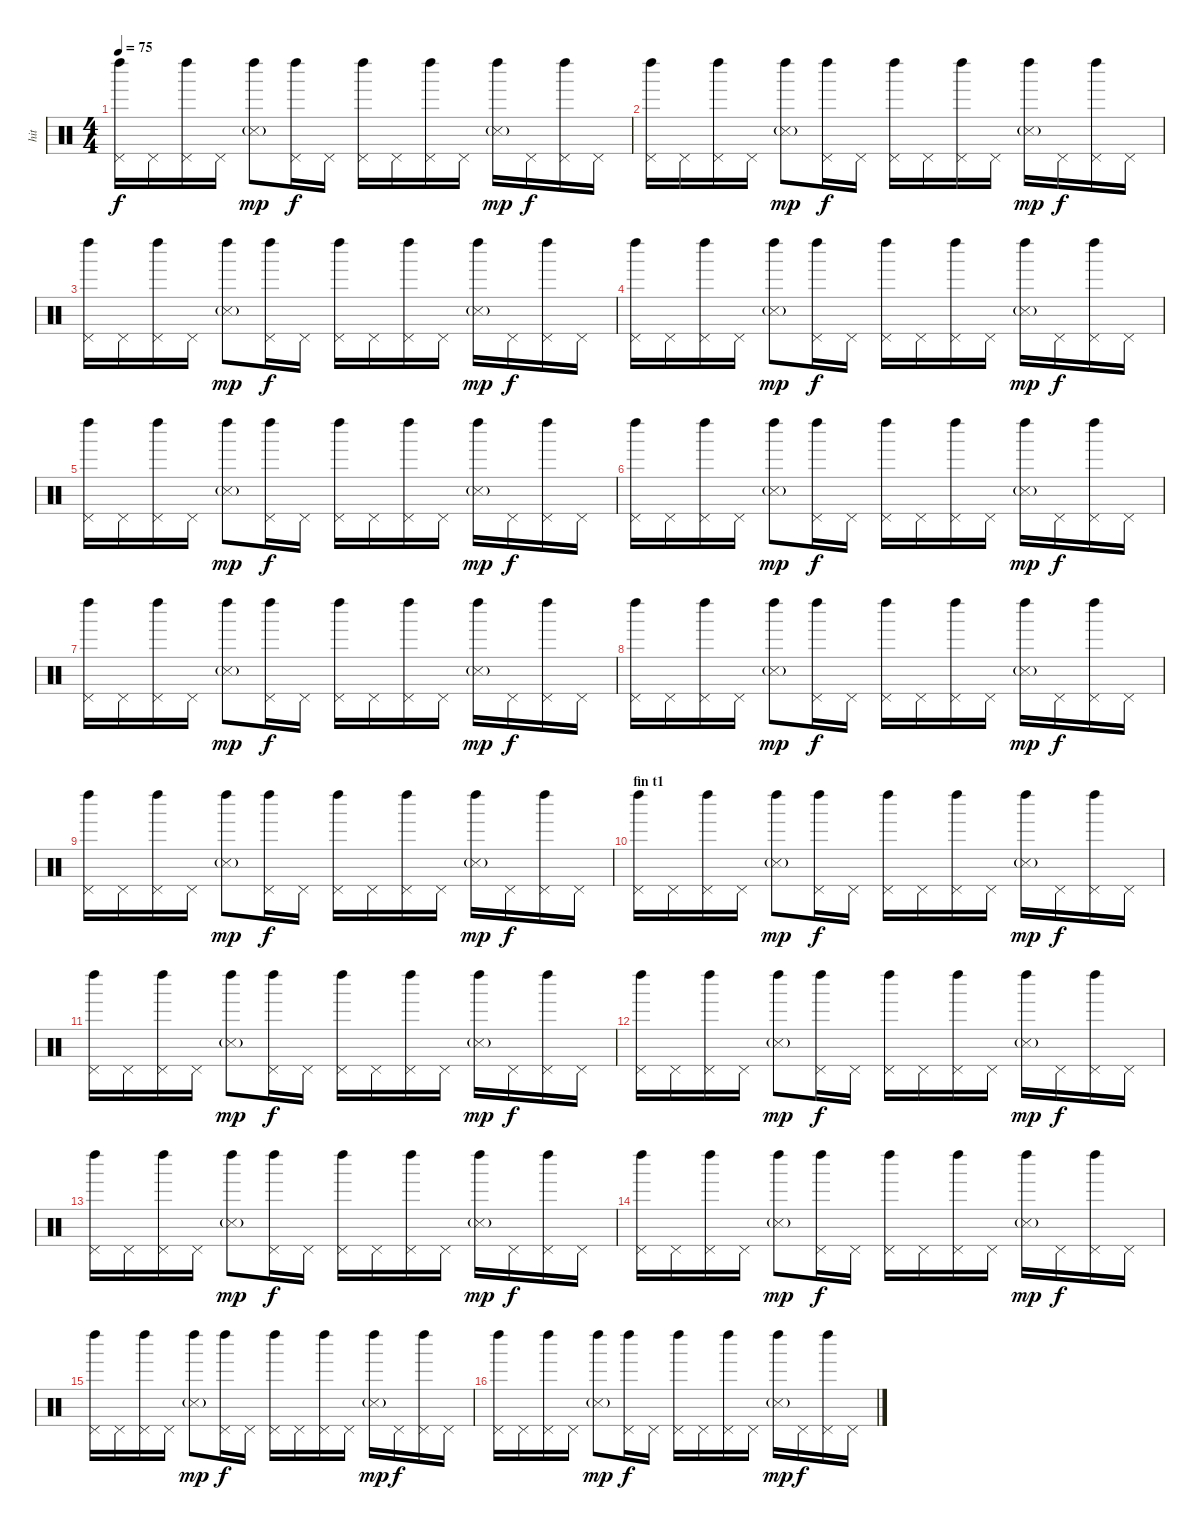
\track ("hit" "hit") {instrument percussion}
\staff {score}
\articulation defaults
\ts (4 4)
\tempo 75
\clef neutral
\ks c
("Pedal Hi-Hat (hit)" "Left Maraca (hit)").16{dy f} "Pedal Hi-Hat (hit)".16 ("Pedal Hi-Hat (hit)" "Left Maraca (hit)").16 "Pedal Hi-Hat (hit)".16 ("Metronome (hit)"{g} "Left Maraca (hit)").8{dy mp} ("Pedal Hi-Hat (hit)" "Left Maraca (hit)").16{dy f} "Pedal Hi-Hat (hit)".16 ("Pedal Hi-Hat (hit)" "Left Maraca (hit)").16 "Pedal Hi-Hat (hit)".16 ("Pedal Hi-Hat (hit)" "Left Maraca (hit)").16 "Pedal Hi-Hat (hit)".16 ("Metronome (hit)"{g} "Left Maraca (hit)").16{dy mp} "Pedal Hi-Hat (hit)".16{dy f} ("Pedal Hi-Hat (hit)" "Left Maraca (hit)").16 "Pedal Hi-Hat (hit)".16 |
("Pedal Hi-Hat (hit)" "Left Maraca (hit)").16 "Pedal Hi-Hat (hit)".16 ("Pedal Hi-Hat (hit)" "Left Maraca (hit)").16 "Pedal Hi-Hat (hit)".16 ("Metronome (hit)"{g} "Left Maraca (hit)").8{dy mp} ("Pedal Hi-Hat (hit)" "Left Maraca (hit)").16{dy f} "Pedal Hi-Hat (hit)".16 ("Pedal Hi-Hat (hit)" "Left Maraca (hit)").16 "Pedal Hi-Hat (hit)".16 ("Pedal Hi-Hat (hit)" "Left Maraca (hit)").16 "Pedal Hi-Hat (hit)".16 ("Metronome (hit)"{g} "Left Maraca (hit)").16{dy mp} "Pedal Hi-Hat (hit)".16{dy f} ("Pedal Hi-Hat (hit)" "Left Maraca (hit)").16 "Pedal Hi-Hat (hit)".16 |
("Pedal Hi-Hat (hit)" "Left Maraca (hit)").16 "Pedal Hi-Hat (hit)".16 ("Pedal Hi-Hat (hit)" "Left Maraca (hit)").16 "Pedal Hi-Hat (hit)".16 ("Metronome (hit)"{g} "Left Maraca (hit)").8{dy mp} ("Pedal Hi-Hat (hit)" "Left Maraca (hit)").16{dy f} "Pedal Hi-Hat (hit)".16 ("Pedal Hi-Hat (hit)" "Left Maraca (hit)").16 "Pedal Hi-Hat (hit)".16 ("Pedal Hi-Hat (hit)" "Left Maraca (hit)").16 "Pedal Hi-Hat (hit)".16 ("Metronome (hit)"{g} "Left Maraca (hit)").16{dy mp} "Pedal Hi-Hat (hit)".16{dy f} ("Pedal Hi-Hat (hit)" "Left Maraca (hit)").16 "Pedal Hi-Hat (hit)".16 |
("Pedal Hi-Hat (hit)" "Left Maraca (hit)").16 "Pedal Hi-Hat (hit)".16 ("Pedal Hi-Hat (hit)" "Left Maraca (hit)").16 "Pedal Hi-Hat (hit)".16 ("Metronome (hit)"{g} "Left Maraca (hit)").8{dy mp} ("Pedal Hi-Hat (hit)" "Left Maraca (hit)").16{dy f} "Pedal Hi-Hat (hit)".16 ("Pedal Hi-Hat (hit)" "Left Maraca (hit)").16 "Pedal Hi-Hat (hit)".16 ("Pedal Hi-Hat (hit)" "Left Maraca (hit)").16 "Pedal Hi-Hat (hit)".16 ("Metronome (hit)"{g} "Left Maraca (hit)").16{dy mp} "Pedal Hi-Hat (hit)".16{dy f} ("Pedal Hi-Hat (hit)" "Left Maraca (hit)").16 "Pedal Hi-Hat (hit)".16 |
("Pedal Hi-Hat (hit)" "Left Maraca (hit)").16 "Pedal Hi-Hat (hit)".16 ("Pedal Hi-Hat (hit)" "Left Maraca (hit)").16 "Pedal Hi-Hat (hit)".16 ("Metronome (hit)"{g} "Left Maraca (hit)").8{dy mp} ("Pedal Hi-Hat (hit)" "Left Maraca (hit)").16{dy f} "Pedal Hi-Hat (hit)".16 ("Pedal Hi-Hat (hit)" "Left Maraca (hit)").16 "Pedal Hi-Hat (hit)".16 ("Pedal Hi-Hat (hit)" "Left Maraca (hit)").16 "Pedal Hi-Hat (hit)".16 ("Metronome (hit)"{g} "Left Maraca (hit)").16{dy mp} "Pedal Hi-Hat (hit)".16{dy f} ("Pedal Hi-Hat (hit)" "Left Maraca (hit)").16 "Pedal Hi-Hat (hit)".16 |
("Pedal Hi-Hat (hit)" "Left Maraca (hit)").16 "Pedal Hi-Hat (hit)".16 ("Pedal Hi-Hat (hit)" "Left Maraca (hit)").16 "Pedal Hi-Hat (hit)".16 ("Metronome (hit)"{g} "Left Maraca (hit)").8{dy mp} ("Pedal Hi-Hat (hit)" "Left Maraca (hit)").16{dy f} "Pedal Hi-Hat (hit)".16 ("Pedal Hi-Hat (hit)" "Left Maraca (hit)").16 "Pedal Hi-Hat (hit)".16 ("Pedal Hi-Hat (hit)" "Left Maraca (hit)").16 "Pedal Hi-Hat (hit)".16 ("Metronome (hit)"{g} "Left Maraca (hit)").16{dy mp} "Pedal Hi-Hat (hit)".16{dy f} ("Pedal Hi-Hat (hit)" "Left Maraca (hit)").16 "Pedal Hi-Hat (hit)".16 |
("Pedal Hi-Hat (hit)" "Left Maraca (hit)").16 "Pedal Hi-Hat (hit)".16 ("Pedal Hi-Hat (hit)" "Left Maraca (hit)").16 "Pedal Hi-Hat (hit)".16 ("Metronome (hit)"{g} "Left Maraca (hit)").8{dy mp} ("Pedal Hi-Hat (hit)" "Left Maraca (hit)").16{dy f} "Pedal Hi-Hat (hit)".16 ("Pedal Hi-Hat (hit)" "Left Maraca (hit)").16 "Pedal Hi-Hat (hit)".16 ("Pedal Hi-Hat (hit)" "Left Maraca (hit)").16 "Pedal Hi-Hat (hit)".16 ("Metronome (hit)"{g} "Left Maraca (hit)").16{dy mp} "Pedal Hi-Hat (hit)".16{dy f} ("Pedal Hi-Hat (hit)" "Left Maraca (hit)").16 "Pedal Hi-Hat (hit)".16 |
("Pedal Hi-Hat (hit)" "Left Maraca (hit)").16 "Pedal Hi-Hat (hit)".16 ("Pedal Hi-Hat (hit)" "Left Maraca (hit)").16 "Pedal Hi-Hat (hit)".16 ("Metronome (hit)"{g} "Left Maraca (hit)").8{dy mp} ("Pedal Hi-Hat (hit)" "Left Maraca (hit)").16{dy f} "Pedal Hi-Hat (hit)".16 ("Pedal Hi-Hat (hit)" "Left Maraca (hit)").16 "Pedal Hi-Hat (hit)".16 ("Pedal Hi-Hat (hit)" "Left Maraca (hit)").16 "Pedal Hi-Hat (hit)".16 ("Metronome (hit)"{g} "Left Maraca (hit)").16{dy mp} "Pedal Hi-Hat (hit)".16{dy f} ("Pedal Hi-Hat (hit)" "Left Maraca (hit)").16 "Pedal Hi-Hat (hit)".16 |
("Pedal Hi-Hat (hit)" "Left Maraca (hit)").16 "Pedal Hi-Hat (hit)".16 ("Pedal Hi-Hat (hit)" "Left Maraca (hit)").16 "Pedal Hi-Hat (hit)".16 ("Metronome (hit)"{g} "Left Maraca (hit)").8{dy mp} ("Pedal Hi-Hat (hit)" "Left Maraca (hit)").16{dy f} "Pedal Hi-Hat (hit)".16 ("Pedal Hi-Hat (hit)" "Left Maraca (hit)").16 "Pedal Hi-Hat (hit)".16 ("Pedal Hi-Hat (hit)" "Left Maraca (hit)").16 "Pedal Hi-Hat (hit)".16 ("Metronome (hit)"{g} "Left Maraca (hit)").16{dy mp} "Pedal Hi-Hat (hit)".16{dy f} ("Pedal Hi-Hat (hit)" "Left Maraca (hit)").16 "Pedal Hi-Hat (hit)".16 |
\section ("" "fin t1")
("Pedal Hi-Hat (hit)" "Left Maraca (hit)").16 "Pedal Hi-Hat (hit)".16 ("Pedal Hi-Hat (hit)" "Left Maraca (hit)").16 "Pedal Hi-Hat (hit)".16 ("Metronome (hit)"{g} "Left Maraca (hit)").8{dy mp} ("Pedal Hi-Hat (hit)" "Left Maraca (hit)").16{dy f} "Pedal Hi-Hat (hit)".16 ("Pedal Hi-Hat (hit)" "Left Maraca (hit)").16 "Pedal Hi-Hat (hit)".16 ("Pedal Hi-Hat (hit)" "Left Maraca (hit)").16 "Pedal Hi-Hat (hit)".16 ("Metronome (hit)"{g} "Left Maraca (hit)").16{dy mp} "Pedal Hi-Hat (hit)".16{dy f} ("Pedal Hi-Hat (hit)" "Left Maraca (hit)").16 "Pedal Hi-Hat (hit)".16 |
("Pedal Hi-Hat (hit)" "Left Maraca (hit)").16 "Pedal Hi-Hat (hit)".16 ("Pedal Hi-Hat (hit)" "Left Maraca (hit)").16 "Pedal Hi-Hat (hit)".16 ("Metronome (hit)"{g} "Left Maraca (hit)").8{dy mp} ("Pedal Hi-Hat (hit)" "Left Maraca (hit)").16{dy f} "Pedal Hi-Hat (hit)".16 ("Pedal Hi-Hat (hit)" "Left Maraca (hit)").16 "Pedal Hi-Hat (hit)".16 ("Pedal Hi-Hat (hit)" "Left Maraca (hit)").16 "Pedal Hi-Hat (hit)".16 ("Metronome (hit)"{g} "Left Maraca (hit)").16{dy mp} "Pedal Hi-Hat (hit)".16{dy f} ("Pedal Hi-Hat (hit)" "Left Maraca (hit)").16 "Pedal Hi-Hat (hit)".16 |
("Pedal Hi-Hat (hit)" "Left Maraca (hit)").16 "Pedal Hi-Hat (hit)".16 ("Pedal Hi-Hat (hit)" "Left Maraca (hit)").16 "Pedal Hi-Hat (hit)".16 ("Metronome (hit)"{g} "Left Maraca (hit)").8{dy mp} ("Pedal Hi-Hat (hit)" "Left Maraca (hit)").16{dy f} "Pedal Hi-Hat (hit)".16 ("Pedal Hi-Hat (hit)" "Left Maraca (hit)").16 "Pedal Hi-Hat (hit)".16 ("Pedal Hi-Hat (hit)" "Left Maraca (hit)").16 "Pedal Hi-Hat (hit)".16 ("Metronome (hit)"{g} "Left Maraca (hit)").16{dy mp} "Pedal Hi-Hat (hit)".16{dy f} ("Pedal Hi-Hat (hit)" "Left Maraca (hit)").16 "Pedal Hi-Hat (hit)".16 |
("Pedal Hi-Hat (hit)" "Left Maraca (hit)").16 "Pedal Hi-Hat (hit)".16 ("Pedal Hi-Hat (hit)" "Left Maraca (hit)").16 "Pedal Hi-Hat (hit)".16 ("Metronome (hit)"{g} "Left Maraca (hit)").8{dy mp} ("Pedal Hi-Hat (hit)" "Left Maraca (hit)").16{dy f} "Pedal Hi-Hat (hit)".16 ("Pedal Hi-Hat (hit)" "Left Maraca (hit)").16 "Pedal Hi-Hat (hit)".16 ("Pedal Hi-Hat (hit)" "Left Maraca (hit)").16 "Pedal Hi-Hat (hit)".16 ("Metronome (hit)"{g} "Left Maraca (hit)").16{dy mp} "Pedal Hi-Hat (hit)".16{dy f} ("Pedal Hi-Hat (hit)" "Left Maraca (hit)").16 "Pedal Hi-Hat (hit)".16 |
("Pedal Hi-Hat (hit)" "Left Maraca (hit)").16 "Pedal Hi-Hat (hit)".16 ("Pedal Hi-Hat (hit)" "Left Maraca (hit)").16 "Pedal Hi-Hat (hit)".16 ("Metronome (hit)"{g} "Left Maraca (hit)").8{dy mp} ("Pedal Hi-Hat (hit)" "Left Maraca (hit)").16{dy f} "Pedal Hi-Hat (hit)".16 ("Pedal Hi-Hat (hit)" "Left Maraca (hit)").16 "Pedal Hi-Hat (hit)".16 ("Pedal Hi-Hat (hit)" "Left Maraca (hit)").16 "Pedal Hi-Hat (hit)".16 ("Metronome (hit)"{g} "Left Maraca (hit)").16{dy mp} "Pedal Hi-Hat (hit)".16{dy f} ("Pedal Hi-Hat (hit)" "Left Maraca (hit)").16 "Pedal Hi-Hat (hit)".16 |
("Pedal Hi-Hat (hit)" "Left Maraca (hit)").16 "Pedal Hi-Hat (hit)".16 ("Pedal Hi-Hat (hit)" "Left Maraca (hit)").16 "Pedal Hi-Hat (hit)".16 ("Metronome (hit)"{g} "Left Maraca (hit)").8{dy mp} ("Pedal Hi-Hat (hit)" "Left Maraca (hit)").16{dy f} "Pedal Hi-Hat (hit)".16 ("Pedal Hi-Hat (hit)" "Left Maraca (hit)").16 "Pedal Hi-Hat (hit)".16 ("Pedal Hi-Hat (hit)" "Left Maraca (hit)").16 "Pedal Hi-Hat (hit)".16 ("Metronome (hit)"{g} "Left Maraca (hit)").16{dy mp} "Pedal Hi-Hat (hit)".16{dy f} ("Pedal Hi-Hat (hit)" "Left Maraca (hit)").16 "Pedal Hi-Hat (hit)".16 |
("Pedal Hi-Hat (hit)" "Left Maraca (hit)").16 "Pedal Hi-Hat (hit)".16 ("Pedal Hi-Hat (hit)" "Left Maraca (hit)").16 "Pedal Hi-Hat (hit)".16 ("Metronome (hit)"{g} "Left Maraca (hit)").8{dy mp} ("Pedal Hi-Hat (hit)" "Left Maraca (hit)").16{dy f} "Pedal Hi-Hat (hit)".16 ("Pedal Hi-Hat (hit)" "Left Maraca (hit)").16 "Pedal Hi-Hat (hit)".16 ("Pedal Hi-Hat (hit)" "Left Maraca (hit)").16 "Pedal Hi-Hat (hit)".16 ("Metronome (hit)"{g} "Left Maraca (hit)").16{dy mp} "Pedal Hi-Hat (hit)".16{dy f} ("Pedal Hi-Hat (hit)" "Left Maraca (hit)").16 "Pedal Hi-Hat (hit)".16
